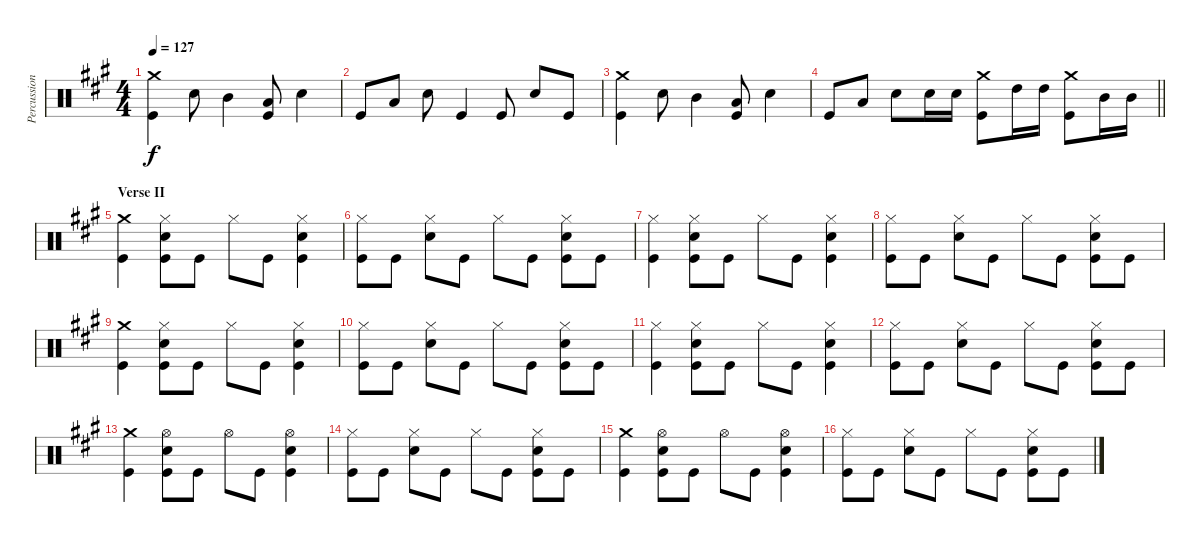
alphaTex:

\track ("Percussion" "Percussion") {instrument percussion}
\staff {score}
\articulation defaults
\ts (4 4)
\tempo 127
\clef neutral
\ks a
("Crash medium (hit)" "Kick (hit)").4{dy f} "Electric Snare (hit)".8 "Mid Tom (hit)".4 ("Low Tom (hit)" "Kick (hit)").8 "Electric Snare (hit)".4 |
"Kick (hit)".8 "Low Floor Tom (hit)".8 "Electric Snare (hit)".8 "Kick (hit)".4 "Kick (hit)".8 "Electric Snare (hit)".8 "Kick (hit)".8 |
("Crash medium (hit)" "Kick (hit)").4 "Electric Snare (hit)".8 "Mid Tom (hit)".4 ("Low Tom (hit)" "Kick (hit)").8 "Electric Snare (hit)".4 |
\barLineRight lightlight "Kick (hit)".8 "Low Floor Tom (hit)".8 "Electric Snare (hit)".8 "Electric Snare (hit)".16 "Electric Snare (hit)".16
("Crash medium (hit)" "Kick (hit)").8 "High Tom (hit)".16 "High Tom (hit)".16 ("Crash medium (hit)" "Kick (hit)").8 "Mid Tom (hit)".16 "Mid Tom (hit)".16 |
\section ("" "Verse II")
("Crash medium (hit)" "Kick (hit)").4 ("Hi-Hat (closed)" "Electric Snare (hit)" "Kick (hit)").8 "Kick (hit)".8 "Hi-Hat (closed)".8 "Kick (hit)".8 ("Hi-Hat (closed)" "Electric Snare (hit)" "Kick (hit)").4 |
("Hi-Hat (closed)" "Kick (hit)").8 "Kick (hit)".8 ("Hi-Hat (closed)" "Electric Snare (hit)").8 "Kick (hit)".8 "Hi-Hat (closed)".8 "Kick (hit)".8 ("Hi-Hat (closed)" "Electric Snare (hit)" "Kick (hit)").8 "Kick (hit)".8 |
("Hi-Hat (closed)" "Kick (hit)").4 ("Hi-Hat (closed)" "Electric Snare (hit)" "Kick (hit)").8 "Kick (hit)".8 "Hi-Hat (closed)".8 "Kick (hit)".8 ("Hi-Hat (closed)" "Electric Snare (hit)" "Kick (hit)").4 |
("Hi-Hat (closed)" "Kick (hit)").8 "Kick (hit)".8 ("Hi-Hat (closed)" "Electric Snare (hit)").8 "Kick (hit)".8 "Hi-Hat (closed)".8 "Kick (hit)".8 ("Hi-Hat (closed)" "Electric Snare (hit)" "Kick (hit)").8 "Kick (hit)".8 |
("Crash medium (hit)" "Kick (hit)").4 ("Hi-Hat (closed)" "Electric Snare (hit)" "Kick (hit)").8 "Kick (hit)".8 "Hi-Hat (closed)".8 "Kick (hit)".8 ("Hi-Hat (closed)" "Electric Snare (hit)" "Kick (hit)").4 |
("Hi-Hat (closed)" "Kick (hit)").8 "Kick (hit)".8 ("Hi-Hat (closed)" "Electric Snare (hit)").8 "Kick (hit)".8 "Hi-Hat (closed)".8 "Kick (hit)".8 ("Hi-Hat (closed)" "Electric Snare (hit)" "Kick (hit)").8 "Kick (hit)".8 |
("Hi-Hat (closed)" "Kick (hit)").4 ("Hi-Hat (closed)" "Electric Snare (hit)" "Kick (hit)").8 "Kick (hit)".8 "Hi-Hat (closed)".8 "Kick (hit)".8 ("Hi-Hat (closed)" "Electric Snare (hit)" "Kick (hit)").4 |
("Hi-Hat (closed)" "Kick (hit)").8 "Kick (hit)".8 ("Hi-Hat (closed)" "Electric Snare (hit)").8 "Kick (hit)".8 "Hi-Hat (closed)".8 "Kick (hit)".8 ("Hi-Hat (closed)" "Electric Snare (hit)" "Kick (hit)").8 "Kick (hit)".8 |
("Crash medium (hit)" "Kick (hit)").4 ("Hi-Hat (open)" "Electric Snare (hit)" "Kick (hit)").8 "Kick (hit)".8 "Hi-Hat (open)".8 "Kick (hit)".8 ("Hi-Hat (open)" "Electric Snare (hit)" "Kick (hit)").4 |
("Hi-Hat (closed)" "Kick (hit)").8 "Kick (hit)".8 ("Hi-Hat (closed)" "Electric Snare (hit)").8 "Kick (hit)".8 "Hi-Hat (closed)".8 "Kick (hit)".8 ("Hi-Hat (closed)" "Electric Snare (hit)" "Kick (hit)").8 "Kick (hit)".8 |
("Crash medium (hit)" "Kick (hit)").4 ("Hi-Hat (open)" "Electric Snare (hit)" "Kick (hit)").8 "Kick (hit)".8 "Hi-Hat (open)".8 "Kick (hit)".8 ("Hi-Hat (open)" "Electric Snare (hit)" "Kick (hit)").4 |
("Hi-Hat (closed)" "Kick (hit)").8 "Kick (hit)".8 ("Hi-Hat (closed)" "Electric Snare (hit)").8 "Kick (hit)".8 "Hi-Hat (closed)".8 "Kick (hit)".8 ("Hi-Hat (closed)" "Electric Snare (hit)" "Kick (hit)").8 "Kick (hit)".8
